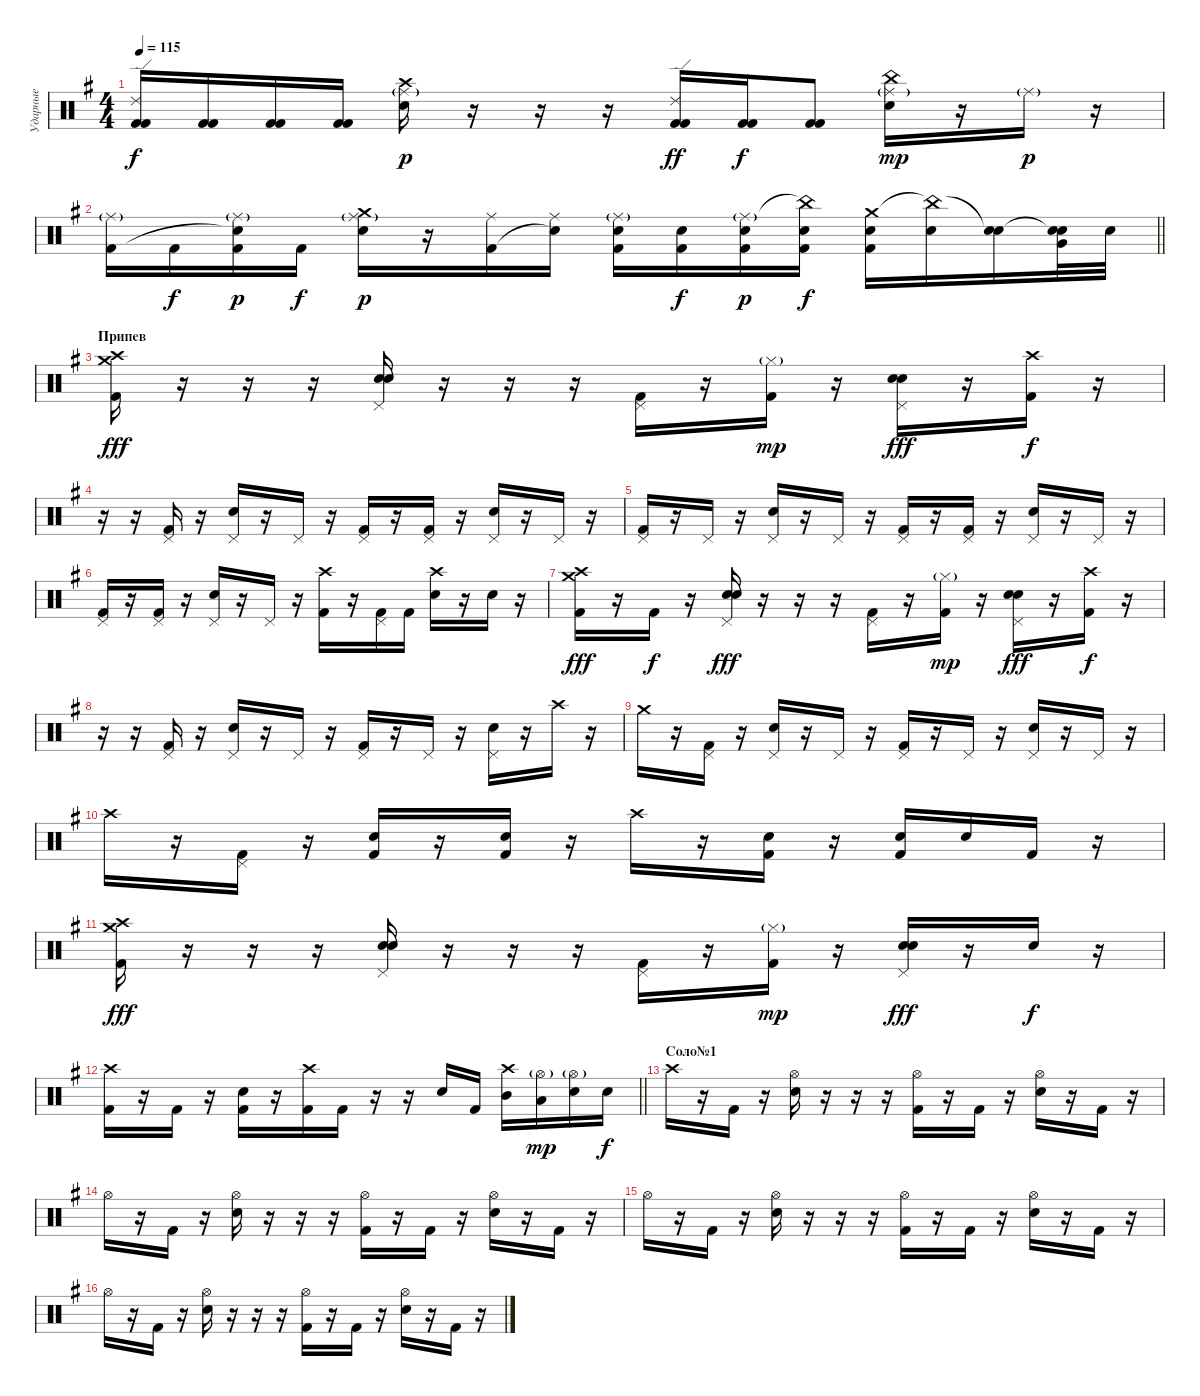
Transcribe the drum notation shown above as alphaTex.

\track ("Ударные" "Ударные") {instrument percussion}
\staff {score}
\articulation defaults
\ts (4 4)
\tempo 115
\clef neutral
\ks g
("Ride (edge) 2" "Kick (hit) 2" "Kick (hit) 2").16{dy f volume 16} ("Kick (hit) 2" "Kick (hit) 2").16 ("Kick (hit) 2" "Kick (hit) 2").16 ("Kick (hit) 2" "Kick (hit) 2").16 ("Ride (middle)"{g} "Crash high (hit)" "Electric Snare (hit)").16{dy p} r.16 r.16 r.16 ("Ride (edge) 2" "Kick (hit) 2" "Kick (hit) 2").16{dy ff} ("Kick (hit) 2" "Kick (hit) 2").16{dy f} ("Kick (hit) 2" "Kick (hit) 2").8 ("Ride (middle)"{g} "China (hit)" "Electric Snare (hit)").16{dy mp} r.16 "Ride (middle)"{g}.16{dy p} r.16 |
\barLineRight lightlight
("Ride (middle)"{g} "Kick (hit) 2").16 "Kick (hit) 2".16{dy f} ("Ride (middle)"{g} "Snare (hit)"{t} "Kick (hit) 2").16{dy p} "Kick (hit) 2"{x}.16{dy f} ("Ride (middle)"{g} "Crash medium (hit)" "Electric Snare (hit)").16{dy p} r.16 ("Ride (middle)" "Kick (hit) 2").16 ("Ride (middle)" "Snare (hit)"{t}).16 ("Ride (middle)"{g} "Electric Snare (hit)" "Kick (hit) 2").16 ("Electric Snare (hit)" "Kick (hit) 2").16{dy f} ("Ride (middle)"{g} "Electric Snare (hit)" "Kick (hit) 2").16{dy p} ("China (hit)"{t} "Electric Snare (hit)" "Kick (hit) 2"{x}).16{dy f} ("Crash medium (hit)" "Electric Snare (hit)" "Kick (hit) 2").16 ("China (hit)"{t} "Electric Snare (hit)").16 ("Snare (hit)"{t} "Electric Snare (hit)").16 ("Snare (hit)"{t} "Electric Snare (hit)" "Very Low Tom (hit)").32 "Electric Snare (hit)".32 |
\section ("" "Припев")
("Crash high (hit)" "Crash medium (hit)" "Kick (hit) 2").16{dy fff volume 16} r.16 r.16 r.16 ("Pedal Hi-Hat (hit)" "Electric Snare (hit)" "Electric Snare (hit)").16 r.16 r.16 r.16 ("Pedal Hi-Hat (hit)" "Kick (hit) 2").16 r.16 ("Hi-Hat (closed)"{g} "Kick (hit) 2").16{dy mp} r.16 ("Pedal Hi-Hat (hit)" "Electric Snare (hit)" "Electric Snare (hit)").16{dy fff} r.16 ("Crash high (hit)" "Kick (hit) 2").16{dy f} r.16 |
r.16 r.16 ("Pedal Hi-Hat (hit)" "Kick (hit) 2").16 r.16 ("Pedal Hi-Hat (hit)" "Electric Snare (hit)").16 r.16 "Pedal Hi-Hat (hit)".16 r.16 ("Pedal Hi-Hat (hit)" "Kick (hit) 2").16 r.16 ("Pedal Hi-Hat (hit)" "Kick (hit) 2").16 r.16 ("Pedal Hi-Hat (hit)" "Electric Snare (hit)").16 r.16 "Pedal Hi-Hat (hit)".16 r.16 |
("Pedal Hi-Hat (hit)" "Kick (hit) 2").16 r.16 "Pedal Hi-Hat (hit)".16 r.16 ("Pedal Hi-Hat (hit)" "Electric Snare (hit)").16 r.16 "Pedal Hi-Hat (hit)".16 r.16 ("Pedal Hi-Hat (hit)" "Kick (hit) 2").16 r.16 ("Pedal Hi-Hat (hit)" "Kick (hit) 2").16 r.16 ("Pedal Hi-Hat (hit)" "Electric Snare (hit)").16 r.16 "Pedal Hi-Hat (hit)".16 r.16 |
("Pedal Hi-Hat (hit)" "Kick (hit) 2").16 r.16 ("Pedal Hi-Hat (hit)" "Kick (hit) 2").16 r.16 ("Pedal Hi-Hat (hit)" "Electric Snare (hit)").16 r.16 "Pedal Hi-Hat (hit)".16 r.16 ("Crash high (hit)" "Kick (hit) 2").16 r.16 ("Pedal Hi-Hat (hit)" "Kick (hit) 2").16 "Kick (hit) 2".16 ("Crash high (hit)" "Electric Snare (hit)").16 r.16 "Electric Snare (hit)".16 r.16 |
("Crash high (hit)" "Crash medium (hit)" "Kick (hit) 2").16{dy fff volume 16} r.16 "Kick (hit) 2".16{dy f} r.16 ("Pedal Hi-Hat (hit)" "Electric Snare (hit)" "Electric Snare (hit)").16{dy fff} r.16 r.16 r.16 ("Pedal Hi-Hat (hit)" "Kick (hit) 2").16 r.16 ("Hi-Hat (closed)"{g} "Kick (hit) 2").16{dy mp} r.16 ("Pedal Hi-Hat (hit)" "Electric Snare (hit)" "Electric Snare (hit)").16{dy fff} r.16 ("Crash high (hit)" "Kick (hit) 2").16{dy f} r.16 |
r.16 r.16 ("Pedal Hi-Hat (hit)" "Kick (hit) 2").16 r.16 ("Pedal Hi-Hat (hit)" "Electric Snare (hit)").16 r.16 "Pedal Hi-Hat (hit)".16 r.16 ("Pedal Hi-Hat (hit)" "Kick (hit) 2").16 r.16 "Pedal Hi-Hat (hit)".16 r.16 ("Pedal Hi-Hat (hit)" "Electric Snare (hit)").16 r.16 "Crash high (hit)".16 r.16 |
"Crash medium (hit)".16 r.16 ("Pedal Hi-Hat (hit)" "Kick (hit) 2").16 r.16 ("Pedal Hi-Hat (hit)" "Electric Snare (hit)").16 r.16 "Pedal Hi-Hat (hit)".16 r.16 ("Pedal Hi-Hat (hit)" "Kick (hit) 2").16 r.16 "Pedal Hi-Hat (hit)".16 r.16 ("Pedal Hi-Hat (hit)" "Electric Snare (hit)").16 r.16 "Pedal Hi-Hat (hit)".16 r.16 |
"Crash high (hit)".16 r.16 ("Pedal Hi-Hat (hit)" "Kick (hit) 2").16 r.16 ("Electric Snare (hit)" "Kick (hit) 2").16 r.16 ("Electric Snare (hit)" "Kick (hit) 2").16 r.16 "Crash high (hit)".16 r.16 ("Electric Snare (hit)" "Kick (hit) 2").16 r.16 ("Electric Snare (hit)" "Kick (hit) 2").16 "Electric Snare (hit)".16 "Kick (hit) 2".16 r.16 |
("Crash high (hit)" "Crash medium (hit)" "Kick (hit) 2").16{dy fff volume 16} r.16 r.16 r.16 ("Pedal Hi-Hat (hit)" "Electric Snare (hit)" "Electric Snare (hit)").16 r.16 r.16 r.16 ("Pedal Hi-Hat (hit)" "Kick (hit) 2").16 r.16 ("Hi-Hat (closed)"{g} "Kick (hit) 2").16{dy mp} r.16 ("Pedal Hi-Hat (hit)" "Electric Snare (hit)" "Electric Snare (hit)").16{dy fff} r.16 "Electric Snare (hit)".16{dy f} r.16 |
\barLineRight lightlight
("Crash high (hit)" "Kick (hit) 2").16 r.16 "Kick (hit) 2".16 r.16 ("Electric Snare (hit)" "Kick (hit) 2").16 r.16 ("Crash high (hit)" "Kick (hit) 2").16 "Kick (hit) 2".16 r.16 r.16 "Electric Snare (hit)".16 "Kick (hit) 2".16 ("Crash high (hit)" "Mid Tom (hit)").16 ("Hi-Hat (open)"{g} "Low Tom (hit)").16{dy mp} ("Hi-Hat (open)"{g} "Electric Snare (hit)").16 "Electric Snare (hit)".16{dy f} |
\section ("" "Соло№1")
"Crash high (hit)".16 r.16 "Kick (hit) 2".16 r.16 ("Hi-Hat (open)" "Electric Snare (hit)").16 r.16 r.16 r.16 ("Hi-Hat (open)" "Kick (hit) 2").16 r.16 "Kick (hit) 2".16 r.16 ("Hi-Hat (open)" "Electric Snare (hit)").16 r.16 "Kick (hit) 2".16 r.16 |
"Hi-Hat (open)".16 r.16 "Kick (hit) 2".16 r.16 ("Hi-Hat (open)" "Electric Snare (hit)").16 r.16 r.16 r.16 ("Hi-Hat (open)" "Kick (hit) 2").16 r.16 "Kick (hit) 2".16 r.16 ("Hi-Hat (open)" "Electric Snare (hit)").16 r.16 "Kick (hit) 2".16 r.16 |
"Hi-Hat (open)".16 r.16 "Kick (hit) 2".16 r.16 ("Hi-Hat (open)" "Electric Snare (hit)").16 r.16 r.16 r.16 ("Hi-Hat (open)" "Kick (hit) 2").16 r.16 "Kick (hit) 2".16 r.16 ("Hi-Hat (open)" "Electric Snare (hit)").16 r.16 "Kick (hit) 2".16 r.16 |
"Hi-Hat (open)".16 r.16 "Kick (hit) 2".16 r.16 ("Hi-Hat (open)" "Electric Snare (hit)").16 r.16 r.16 r.16 ("Hi-Hat (open)" "Kick (hit) 2").16 r.16 "Kick (hit) 2".16 r.16 ("Hi-Hat (open)" "Electric Snare (hit)").16 r.16 "Kick (hit) 2".16 r.16
